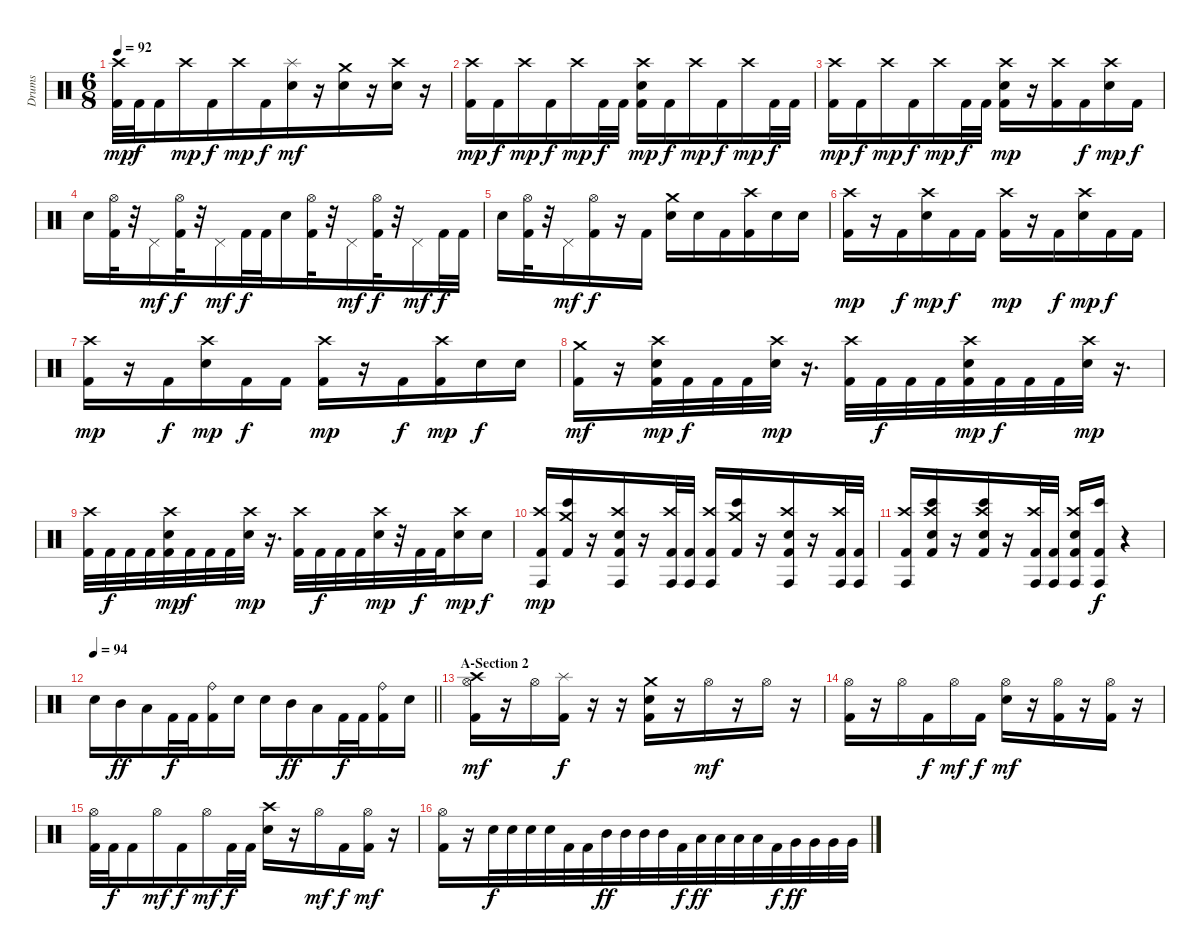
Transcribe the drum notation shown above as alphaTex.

\track ("Drums" "Drums") {instrument percussion}
\staff {score}
\articulation defaults
\ts (6 8)
\tempo 92
\clef neutral
\ks c
("Crash high (hit)" "Kick (hit) 2").32{dy mp} "Kick (hit) 2".32{dy f} "Kick (hit) 2".16 "Crash high (hit)".16{dy mp} "Kick (hit) 2".16{dy f} "Crash high (hit)".16{dy mp} "Kick (hit) 2".16{dy f beam merge} ("Splash (hit)" "Snare (hit) 2").16{dy mf} r.16{beam merge} ("Crash medium (hit)" "Snare (hit) 2").16 r.16 ("Crash high (hit)" "Snare (hit) 2").16 r.16 |
("Crash high (hit)" "Kick (hit) 2").16{dy mp} "Kick (hit) 2".16{dy f beam merge} "Crash high (hit)".16{dy mp} "Kick (hit) 2".16{dy f beam merge} "Crash high (hit)".16{dy mp} "Kick (hit) 2".32{dy f} "Kick (hit) 2".32 ("Crash high (hit)" "Snare (hit) 2" "Kick (hit) 2").16{dy mp} "Kick (hit) 2".16{dy f beam merge} "Crash high (hit)".16{dy mp} "Kick (hit) 2".16{dy f beam merge} "Crash high (hit)".16{dy mp} "Kick (hit) 2".32{dy f} "Kick (hit) 2".32 |
("Crash high (hit)" "Kick (hit) 2").16{dy mp} "Kick (hit) 2".16{dy f beam merge} "Crash high (hit)".16{dy mp} "Kick (hit) 2".16{dy f beam merge} "Crash high (hit)".16{dy mp} "Kick (hit) 2".32{dy f} "Kick (hit) 2".32 ("Crash high (hit)" "Snare (hit) 2" "Kick (hit) 2").16{dy mp} r.16{beam merge} ("Crash high (hit)" "Kick (hit) 2").16 "Kick (hit) 2".16{dy f beam merge} ("Crash high (hit)" "Snare (hit) 2").16{dy mp} "Kick (hit) 2".16{dy f} |
"Snare (hit) 2".16 ("Hi-Hat (open)" "Kick (hit) 2").32{beam merge} r.32 "Pedal Hi-Hat (hit)".16{dy mf} ("Hi-Hat (open)" "Kick (hit) 2").32{dy f beam merge} r.32 "Pedal Hi-Hat (hit)".16{dy mf} "Kick (hit) 2".32{dy f} "Kick (hit) 2".32{beam merge} "Snare (hit) 2".16 ("Hi-Hat (open)" "Kick (hit) 2").32{beam merge} r.32 "Pedal Hi-Hat (hit)".16{dy mf} ("Hi-Hat (open)" "Kick (hit) 2").32{dy f beam merge} r.32 "Pedal Hi-Hat (hit)".16{dy mf} "Kick (hit) 2".32{dy f} "Kick (hit) 2".32 |
"Snare (hit) 2".16 ("Hi-Hat (open)" "Kick (hit) 2").32{beam merge} r.32 "Pedal Hi-Hat (hit)".16{dy mf} ("Hi-Hat (open)" "Kick (hit) 2").16{dy f} r.16 "Kick (hit) 2".16 ("Crash medium (hit)" "Snare (hit) 2").16 "Snare (hit) 2".16 "Kick (hit) 2".16 ("Crash high (hit)" "Kick (hit) 2").16{beam merge} "Snare (hit) 2".16{beam merge} "Snare (hit) 2".16 |
("Crash high (hit)" "Kick (hit) 2").16{dy mp beam merge} r.16 "Kick (hit) 2".16{dy f beam merge} ("Crash high (hit)" "Snare (hit) 2").16{dy mp} "Kick (hit) 2".16{dy f} "Kick (hit) 2".16 ("Crash high (hit)" "Kick (hit) 2").16{dy mp beam merge} r.16 "Kick (hit) 2".16{dy f beam merge} ("Crash high (hit)" "Snare (hit) 2").16{dy mp} "Kick (hit) 2".16{dy f} "Kick (hit) 2".16 |
("Crash high (hit)" "Kick (hit) 2").16{dy mp beam merge} r.16 "Kick (hit) 2".16{dy f beam merge} ("Crash high (hit)" "Snare (hit) 2").16{dy mp} "Kick (hit) 2".16{dy f} "Kick (hit) 2".16 ("Crash high (hit)" "Kick (hit) 2").16{dy mp beam merge} r.16 "Kick (hit) 2".16{dy f beam merge} ("Crash high (hit)" "Kick (hit) 2").16{dy mp} "Snare (hit) 2".16{dy f} "Snare (hit) 2".16 |
("Crash medium (hit)" "Kick (hit) 2").16{dy mf} r.16{beam merge} ("Crash high (hit)" "Snare (hit) 2" "Kick (hit) 2").32{dy mp beam merge} "Kick (hit) 2".32{dy f beam merge} "Kick (hit) 2".32 "Kick (hit) 2".32{beam merge} ("Crash high (hit)" "Snare (hit) 2").32{dy mp} r.16{d beam merge} ("Crash high (hit)" "Kick (hit) 2").32{beam merge} "Kick (hit) 2".32{dy f beam merge} "Kick (hit) 2".32 "Kick (hit) 2".32{beam merge} ("Crash high (hit)" "Snare (hit) 2" "Kick (hit) 2").32{dy mp} "Kick (hit) 2".32{dy f} "Kick (hit) 2".32{beam merge} "Kick (hit) 2".32 ("Crash high (hit)" "Snare (hit) 2").32{dy mp} r.16{d} |
("Crash high (hit)" "Kick (hit) 2").32{beam merge} "Kick (hit) 2".32{dy f beam merge} "Kick (hit) 2".32 "Kick (hit) 2".32{beam merge} ("Crash high (hit)" "Snare (hit) 2" "Kick (hit) 2").32{dy mp} "Kick (hit) 2".32{dy f} "Kick (hit) 2".32{beam merge} "Kick (hit) 2".32 ("Crash high (hit)" "Snare (hit) 2").32{dy mp} r.16{d beam merge} ("Crash high (hit)" "Kick (hit) 2").32{beam merge} "Kick (hit) 2".32{dy f beam merge} "Kick (hit) 2".32 "Kick (hit) 2".32{beam merge} ("Crash high (hit)" "Snare (hit) 2").32{dy mp} r.32 "Kick (hit) 2".32{dy f beam merge} "Kick (hit) 2".32 ("Crash high (hit)" "Snare (hit) 2").16{dy mp beam merge} "Snare (hit) 2".16{dy f} |
("Crash high (hit)" "Conga high (hit)" "Kick (hit) 2").16{dy mp} ("Crash medium (hit)" "Bongo High (hit)" "Kick (hit) 2").16{beam merge} r.16 ("Crash high (hit)" "Conga high (hit)" "Snare (hit) 2" "Kick (hit) 2").16{beam merge} r.16 ("Crash high (hit)" "Conga high (hit)" "Kick (hit) 2").32 ("Conga high (hit)" "Kick (hit) 2").32 ("Crash high (hit)" "Conga high (hit)" "Kick (hit) 2").16 ("Crash medium (hit)" "Bongo High (hit)" "Kick (hit) 2").16{beam merge} r.16 ("Crash high (hit)" "Conga high (hit)" "Snare (hit) 2" "Kick (hit) 2").16{beam merge} r.16 ("Crash high (hit)" "Conga high (hit)" "Kick (hit) 2").32 ("Conga high (hit)" "Kick (hit) 2").32 |
("Crash high (hit)" "Conga high (hit)" "Kick (hit) 2").16 ("Crash high (hit)" "Bongo High (hit)" "Snare (hit) 2" "Kick (hit) 2").16{beam merge} r.16 ("Crash high (hit)" "Bongo High (hit)" "Snare (hit) 2" "Kick (hit) 2").16{beam merge} r.16 ("Crash high (hit)" "Conga high (hit)" "Kick (hit) 2").32 ("Conga high (hit)" "Kick (hit) 2").32 ("Crash high (hit)" "Conga high (hit)" "Snare (hit) 2" "Kick (hit) 2").16 ("Conga high (hit)" "Bongo High (hit)" "Kick (hit) 2").16{dy f beam merge} r.4 |
\tempo 94
\barLineRight lightlight "Snare (hit) 2".16 "Mid Tom (hit)".16{dy ff} "Low Tom (hit)".16{beam merge} "Kick (hit) 2".32{dy f beam merge} "Kick (hit) 2".32
("Ride (bell)" "Kick (hit) 2").16 "Snare (hit) 2".16 "Snare (hit) 2".16 "Mid Tom (hit)".16{dy ff} "Low Tom (hit)".16{beam merge} "Kick (hit) 2".32{dy f beam merge} "Kick (hit) 2".32 ("Ride (bell)" "Kick (hit) 2").16 "Snare (hit) 2".16 |
\section ("" "A-Section 2")
("Crash high (hit)" "Hi-Hat (open)" "Kick (hit) 2").16{dy mf} r.16 "Hi-Hat (open)".16{beam merge} ("Splash (hit)" "Kick (hit) 2").16{dy f} r.16{beam merge} r.16 ("Crash medium (hit)" "Snare (hit) 2" "Kick (hit) 2").16 r.16 "Hi-Hat (open)".16{dy mf} r.16{beam merge} "Hi-Hat (open)".16{beam merge} r.16 |
("Hi-Hat (open)" "Kick (hit) 2").16 r.16 "Hi-Hat (open)".16{beam merge} "Kick (hit) 2".16{dy f} "Hi-Hat (open)".16{dy mf beam merge} "Kick (hit) 2".16{dy f} ("Hi-Hat (open)" "Snare (hit) 2").16{dy mf} r.16 ("Hi-Hat (open)" "Kick (hit) 2").16 r.16{beam merge} ("Hi-Hat (open)" "Kick (hit) 2").16{beam merge} r.16 |
("Hi-Hat (open)" "Kick (hit) 2").32{beam merge} "Kick (hit) 2".32{dy f} "Kick (hit) 2".16 "Hi-Hat (open)".16{dy mf beam merge} "Kick (hit) 2".16{dy f} "Hi-Hat (open)".16{dy mf beam merge} "Kick (hit) 2".32{dy f beam merge} "Kick (hit) 2".32 ("Crash high (hit)" "Snare (hit) 2").16 r.16 "Hi-Hat (open)".16{dy mf} "Kick (hit) 2".16{dy f beam merge} ("Hi-Hat (open)" "Kick (hit) 2").16{dy mf beam merge} r.16 |
("Hi-Hat (open)" "Kick (hit) 2").16 r.16{beam merge} "Snare (hit) 2".32{dy f} "Snare (hit) 2".32 "Snare (hit) 2".32 "Snare (hit) 2".32 "Kick (hit) 2".32{beam merge} "Kick (hit) 2".32 "Mid Tom (hit)".32{dy ff} "Mid Tom (hit)".32{beam merge} "Mid Tom (hit)".32{beam merge} "Mid Tom (hit)".32 "Kick (hit) 2".32{dy f} "Low Tom (hit)".32{dy ff beam merge} "Low Tom (hit)".32 "Low Tom (hit)".32 "Low Tom (hit)".32{beam merge} "Kick (hit) 2".32{dy f} "Very Low Tom (hit)".32{dy ff} "Very Low Tom (hit)".32 "Very Low Tom (hit)".32{beam merge} "Very Low Tom (hit)".32
